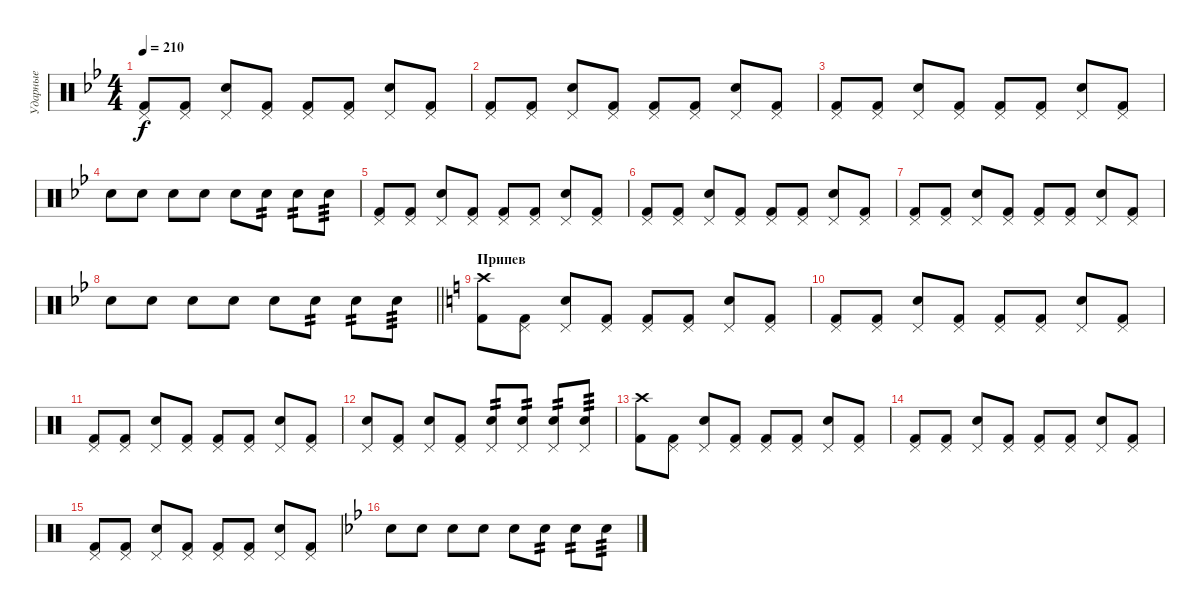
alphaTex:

\track ("Ударные" "Ударные") {instrument percussion}
\staff {score}
\articulation defaults
\ts (4 4)
\tempo 210
\clef neutral
\ks bb
("Pedal Hi-Hat (hit)" "Kick (hit) 2").8{dy f} ("Pedal Hi-Hat (hit)" "Kick (hit) 2").8 ("Pedal Hi-Hat (hit)" "Electric Snare (hit)").8 ("Pedal Hi-Hat (hit)" "Kick (hit) 2").8 ("Pedal Hi-Hat (hit)" "Kick (hit) 2").8 ("Pedal Hi-Hat (hit)" "Kick (hit) 2").8 ("Pedal Hi-Hat (hit)" "Electric Snare (hit)").8 ("Pedal Hi-Hat (hit)" "Kick (hit) 2").8 |
("Pedal Hi-Hat (hit)" "Kick (hit) 2").8 ("Pedal Hi-Hat (hit)" "Kick (hit) 2").8 ("Pedal Hi-Hat (hit)" "Electric Snare (hit)").8 ("Pedal Hi-Hat (hit)" "Kick (hit) 2").8 ("Pedal Hi-Hat (hit)" "Kick (hit) 2").8 ("Pedal Hi-Hat (hit)" "Kick (hit) 2").8 ("Pedal Hi-Hat (hit)" "Electric Snare (hit)").8 ("Pedal Hi-Hat (hit)" "Kick (hit) 2").8 |
("Pedal Hi-Hat (hit)" "Kick (hit) 2").8 ("Pedal Hi-Hat (hit)" "Kick (hit) 2").8 ("Pedal Hi-Hat (hit)" "Electric Snare (hit)").8 ("Pedal Hi-Hat (hit)" "Kick (hit) 2").8 ("Pedal Hi-Hat (hit)" "Kick (hit) 2").8 ("Pedal Hi-Hat (hit)" "Kick (hit) 2").8 ("Pedal Hi-Hat (hit)" "Electric Snare (hit)").8 ("Pedal Hi-Hat (hit)" "Kick (hit) 2").8 |
"Electric Snare (hit)".8 "Electric Snare (hit)".8 "Electric Snare (hit)".8 "Electric Snare (hit)".8 "Electric Snare (hit)".8 "Electric Snare (hit)".8{tp 2} "Electric Snare (hit)".8{tp 2} "Electric Snare (hit)".8{tp 3} |
("Pedal Hi-Hat (hit)" "Kick (hit) 2").8 ("Pedal Hi-Hat (hit)" "Kick (hit) 2").8 ("Pedal Hi-Hat (hit)" "Electric Snare (hit)").8 ("Pedal Hi-Hat (hit)" "Kick (hit) 2").8 ("Pedal Hi-Hat (hit)" "Kick (hit) 2").8 ("Pedal Hi-Hat (hit)" "Kick (hit) 2").8 ("Pedal Hi-Hat (hit)" "Electric Snare (hit)").8 ("Pedal Hi-Hat (hit)" "Kick (hit) 2").8 |
("Pedal Hi-Hat (hit)" "Kick (hit) 2").8 ("Pedal Hi-Hat (hit)" "Kick (hit) 2").8 ("Pedal Hi-Hat (hit)" "Electric Snare (hit)").8 ("Pedal Hi-Hat (hit)" "Kick (hit) 2").8 ("Pedal Hi-Hat (hit)" "Kick (hit) 2").8 ("Pedal Hi-Hat (hit)" "Kick (hit) 2").8 ("Pedal Hi-Hat (hit)" "Electric Snare (hit)").8 ("Pedal Hi-Hat (hit)" "Kick (hit) 2").8 |
("Pedal Hi-Hat (hit)" "Kick (hit) 2").8 ("Pedal Hi-Hat (hit)" "Kick (hit) 2").8 ("Pedal Hi-Hat (hit)" "Electric Snare (hit)").8 ("Pedal Hi-Hat (hit)" "Kick (hit) 2").8 ("Pedal Hi-Hat (hit)" "Kick (hit) 2").8 ("Pedal Hi-Hat (hit)" "Kick (hit) 2").8 ("Pedal Hi-Hat (hit)" "Electric Snare (hit)").8 ("Pedal Hi-Hat (hit)" "Kick (hit) 2").8 |
\barLineRight lightlight "Electric Snare (hit)".8 "Electric Snare (hit)".8 "Electric Snare (hit)".8 "Electric Snare (hit)".8 "Electric Snare (hit)".8 "Electric Snare (hit)".8{tp 2} "Electric Snare (hit)".8{tp 2} "Electric Snare (hit)".8{tp 3}
|
\section ("" "Припев")
\ks c
("Crash high (hit)" "Kick (hit) 2").8 ("Pedal Hi-Hat (hit)" "Kick (hit) 2").8 ("Pedal Hi-Hat (hit)" "Electric Snare (hit)").8 ("Pedal Hi-Hat (hit)" "Kick (hit) 2").8 ("Pedal Hi-Hat (hit)" "Kick (hit) 2").8 ("Pedal Hi-Hat (hit)" "Kick (hit) 2").8 ("Pedal Hi-Hat (hit)" "Electric Snare (hit)").8 ("Pedal Hi-Hat (hit)" "Kick (hit) 2").8 |
("Pedal Hi-Hat (hit)" "Kick (hit) 2").8 ("Pedal Hi-Hat (hit)" "Kick (hit) 2").8 ("Pedal Hi-Hat (hit)" "Electric Snare (hit)").8 ("Pedal Hi-Hat (hit)" "Kick (hit) 2").8 ("Pedal Hi-Hat (hit)" "Kick (hit) 2").8 ("Pedal Hi-Hat (hit)" "Kick (hit) 2").8 ("Pedal Hi-Hat (hit)" "Electric Snare (hit)").8 ("Pedal Hi-Hat (hit)" "Kick (hit) 2").8 |
("Pedal Hi-Hat (hit)" "Kick (hit) 2").8 ("Pedal Hi-Hat (hit)" "Kick (hit) 2").8 ("Pedal Hi-Hat (hit)" "Electric Snare (hit)").8 ("Pedal Hi-Hat (hit)" "Kick (hit) 2").8 ("Pedal Hi-Hat (hit)" "Kick (hit) 2").8 ("Pedal Hi-Hat (hit)" "Kick (hit) 2").8 ("Pedal Hi-Hat (hit)" "Electric Snare (hit)").8 ("Pedal Hi-Hat (hit)" "Kick (hit) 2").8 |
("Pedal Hi-Hat (hit)" "Electric Snare (hit)").8 ("Pedal Hi-Hat (hit)" "Kick (hit) 2").8 ("Pedal Hi-Hat (hit)" "Electric Snare (hit)").8 ("Pedal Hi-Hat (hit)" "Kick (hit) 2").8 ("Pedal Hi-Hat (hit)" "Electric Snare (hit)").8{tp 2} ("Pedal Hi-Hat (hit)" "Electric Snare (hit)").8{tp 2} ("Pedal Hi-Hat (hit)" "Electric Snare (hit)").8{tp 2} ("Pedal Hi-Hat (hit)" "Electric Snare (hit)").8{tp 3} |
("Crash high (hit)" "Kick (hit) 2").8 ("Pedal Hi-Hat (hit)" "Kick (hit) 2").8 ("Pedal Hi-Hat (hit)" "Electric Snare (hit)").8 ("Pedal Hi-Hat (hit)" "Kick (hit) 2").8 ("Pedal Hi-Hat (hit)" "Kick (hit) 2").8 ("Pedal Hi-Hat (hit)" "Kick (hit) 2").8 ("Pedal Hi-Hat (hit)" "Electric Snare (hit)").8 ("Pedal Hi-Hat (hit)" "Kick (hit) 2").8 |
("Pedal Hi-Hat (hit)" "Kick (hit) 2").8 ("Pedal Hi-Hat (hit)" "Kick (hit) 2").8 ("Pedal Hi-Hat (hit)" "Electric Snare (hit)").8 ("Pedal Hi-Hat (hit)" "Kick (hit) 2").8 ("Pedal Hi-Hat (hit)" "Kick (hit) 2").8 ("Pedal Hi-Hat (hit)" "Kick (hit) 2").8 ("Pedal Hi-Hat (hit)" "Electric Snare (hit)").8 ("Pedal Hi-Hat (hit)" "Kick (hit) 2").8 |
("Pedal Hi-Hat (hit)" "Kick (hit) 2").8 ("Pedal Hi-Hat (hit)" "Kick (hit) 2").8 ("Pedal Hi-Hat (hit)" "Electric Snare (hit)").8 ("Pedal Hi-Hat (hit)" "Kick (hit) 2").8 ("Pedal Hi-Hat (hit)" "Kick (hit) 2").8 ("Pedal Hi-Hat (hit)" "Kick (hit) 2").8 ("Pedal Hi-Hat (hit)" "Electric Snare (hit)").8 ("Pedal Hi-Hat (hit)" "Kick (hit) 2").8 |
\ks bb "Electric Snare (hit)".8 "Electric Snare (hit)".8 "Electric Snare (hit)".8 "Electric Snare (hit)".8 "Electric Snare (hit)".8 "Electric Snare (hit)".8{tp 2} "Electric Snare (hit)".8{tp 2} "Electric Snare (hit)".8{tp 3}
